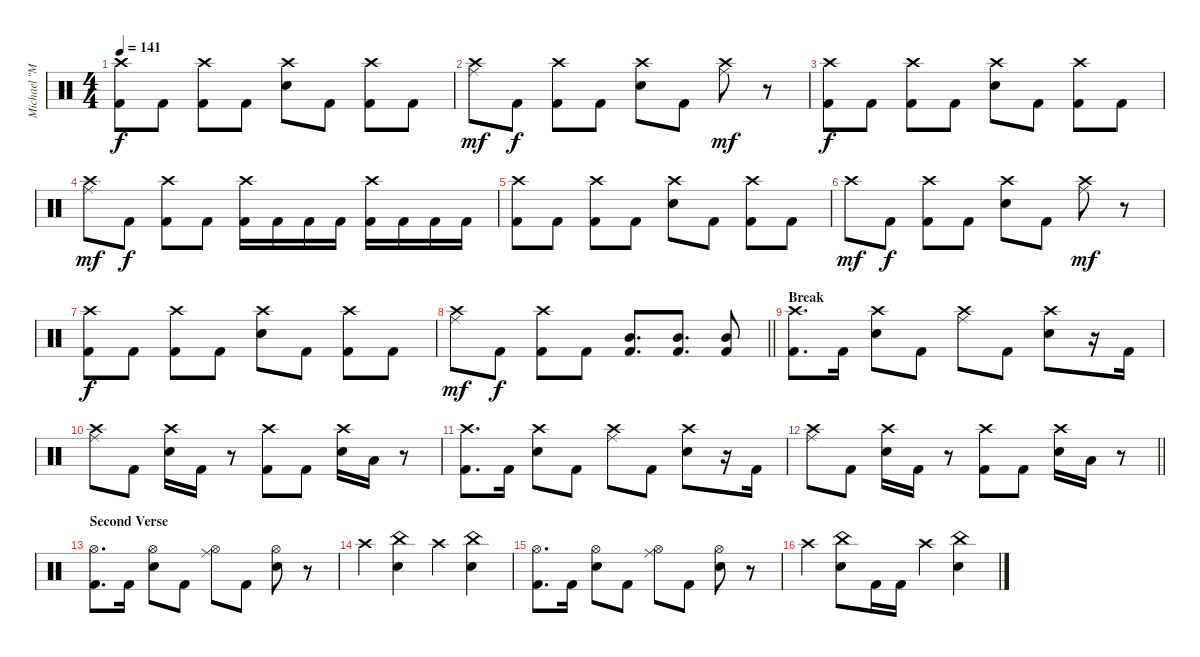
\track ("Michael \"Moose\" Thomas" "Michael \"M") {instrument percussion}
\staff {score}
\articulation defaults
\ts (4 4)
\tempo 141
\clef neutral
\ks c
("Crash high (hit)" "Kick (hit) 2").8{dy f} "Kick (hit) 2".8 ("Crash high (hit)" "Kick (hit) 2").8 "Kick (hit) 2".8 ("Crash high (hit)" "Snare (hit) 2").8 "Kick (hit) 2".8 ("Crash high (hit)" "Kick (hit) 2").8 "Kick (hit) 2".8 |
("Crash high (hit)" "Ride (middle)").8{dy mf} "Kick (hit) 2".8{dy f} ("Crash high (hit)" "Kick (hit) 2").8 "Kick (hit) 2".8 ("Crash high (hit)" "Snare (hit) 2").8 "Kick (hit) 2".8 ("Crash high (hit)" "Ride (middle)").8{dy mf} r.8 |
("Crash high (hit)" "Kick (hit) 2").8{dy f} "Kick (hit) 2".8 ("Crash high (hit)" "Kick (hit) 2").8 "Kick (hit) 2".8 ("Crash high (hit)" "Snare (hit) 2").8 "Kick (hit) 2".8 ("Crash high (hit)" "Kick (hit) 2").8 "Kick (hit) 2".8 |
("Crash high (hit)" "Ride (middle)").8{dy mf} "Kick (hit) 2".8{dy f} ("Crash high (hit)" "Kick (hit) 2").8 "Kick (hit) 2".8 ("Crash high (hit)" "Kick (hit) 2").16 "Kick (hit) 2".16 "Kick (hit) 2".16 "Kick (hit) 2".16 ("Crash high (hit)" "Kick (hit) 2").16 "Kick (hit) 2".16 "Kick (hit) 2".16 "Kick (hit) 2".16 |
("Crash high (hit)" "Kick (hit) 2").8 "Kick (hit) 2".8 ("Crash high (hit)" "Kick (hit) 2").8 "Kick (hit) 2".8 ("Crash high (hit)" "Snare (hit) 2").8 "Kick (hit) 2".8 ("Crash high (hit)" "Kick (hit) 2").8 "Kick (hit) 2".8 |
"Crash high (hit)".8{dy mf} "Kick (hit) 2".8{dy f} ("Crash high (hit)" "Kick (hit) 2").8 "Kick (hit) 2".8 ("Crash high (hit)" "Snare (hit) 2").8 "Kick (hit) 2".8 ("Crash high (hit)" "Ride (middle)").8{dy mf} r.8 |
("Crash high (hit)" "Kick (hit) 2").8{dy f} "Kick (hit) 2".8 ("Crash high (hit)" "Kick (hit) 2").8 "Kick (hit) 2".8 ("Crash high (hit)" "Snare (hit) 2").8 "Kick (hit) 2".8 ("Crash high (hit)" "Kick (hit) 2").8 "Kick (hit) 2".8 |
\barLineRight lightlight
("Crash high (hit)" "Ride (middle)").8{dy mf} "Kick (hit) 2".8{dy f} ("Crash high (hit)" "Kick (hit) 2").8 "Kick (hit) 2".8 ("Mid Tom (hit)" "Kick (hit) 2").8{d} ("Mid Tom (hit)" "Kick (hit) 2").8{d} ("Mid Tom (hit)" "Kick (hit) 2").8 |
\section ("" "Break")
("Crash high (hit)" "Kick (hit) 2").8{d} "Kick (hit) 2".16 ("Crash high (hit)" "Snare (hit) 2").8 "Kick (hit) 2".8 ("Crash high (hit)" "Ride (middle)").8 "Kick (hit) 2".8 ("Crash high (hit)" "Snare (hit) 2").8 r.16 "Kick (hit) 2".16 |
("Crash high (hit)" "Ride (middle)").8 "Kick (hit) 2".8 ("Crash high (hit)" "Snare (hit) 2").16 "Kick (hit) 2".16 r.8 ("Crash high (hit)" "Kick (hit) 2").8 "Kick (hit) 2".8 ("Crash high (hit)" "Snare (hit) 2").16 "Low Floor Tom (hit)".16 r.8 |
("Crash high (hit)" "Kick (hit) 2").8{d} "Kick (hit) 2".16 ("Crash high (hit)" "Snare (hit) 2").8 "Kick (hit) 2".8 ("Crash high (hit)" "Ride (middle)").8 "Kick (hit) 2".8 ("Crash high (hit)" "Snare (hit) 2").8 r.16 "Kick (hit) 2".16 |
\barLineRight lightlight
("Crash high (hit)" "Ride (middle)").8 "Kick (hit) 2".8 ("Crash high (hit)" "Snare (hit) 2").16 "Kick (hit) 2".16 r.8 ("Crash high (hit)" "Kick (hit) 2").8 "Kick (hit) 2".8 ("Crash high (hit)" "Snare (hit) 2").16 "Low Floor Tom (hit)".16 r.8 |
\section ("" "Second Verse")
("Hi-Hat (open)" "Kick (hit) 2").8{d} "Kick (hit) 2".16 ("Hi-Hat (open)" "Snare (hit) 2").8 "Kick (hit) 2".8 ("Hi-Hat (open)" "Ride (middle)").8 "Kick (hit) 2".8 ("Hi-Hat (open)" "Snare (hit) 2").8 r.8 |
"Crash high (hit)".4 ("China (hit)" "Snare (hit) 2").4 "Crash high (hit)".4 ("China (hit)" "Snare (hit) 2").4 |
("Hi-Hat (open)" "Kick (hit) 2").8{d} "Kick (hit) 2".16 ("Hi-Hat (open)" "Snare (hit) 2").8 "Kick (hit) 2".8 ("Hi-Hat (open)" "Ride (middle)").8 "Kick (hit) 2".8 ("Hi-Hat (open)" "Snare (hit) 2").8 r.8 |
"Crash high (hit)".4 ("China (hit)" "Snare (hit) 2").8 "Kick (hit) 2".16 "Kick (hit) 2".16 "Crash high (hit)".4 ("China (hit)" "Snare (hit) 2").4
